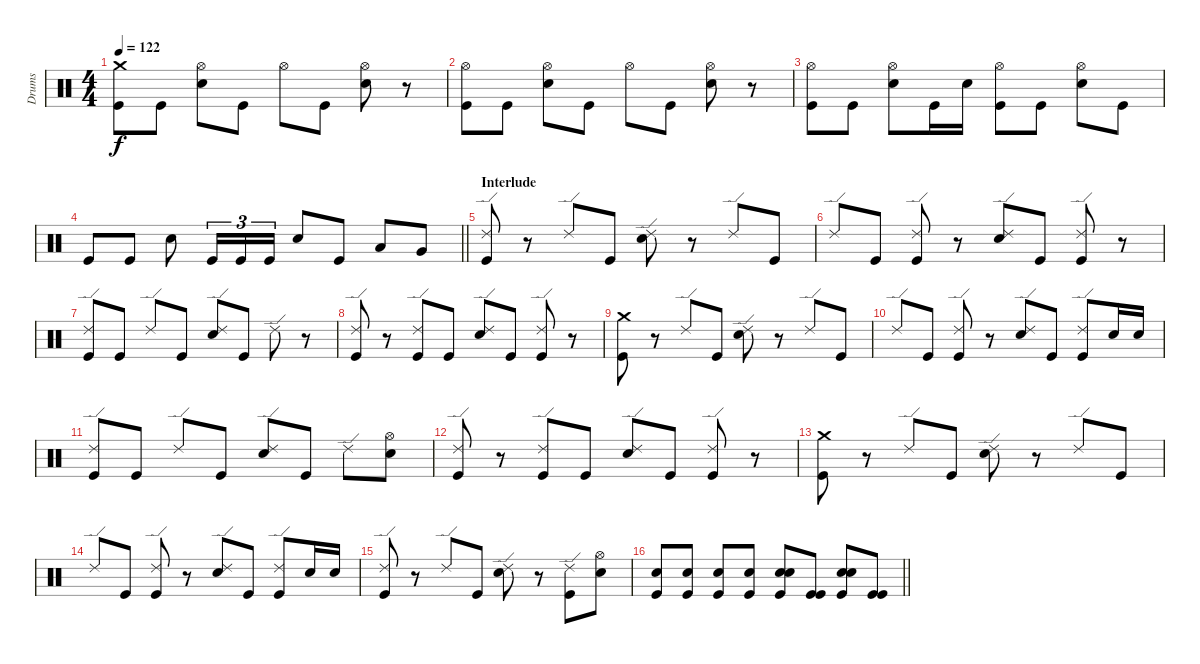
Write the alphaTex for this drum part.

\track ("Drums" "Drums") {instrument percussion}
\staff {score}
\articulation defaults
\ts (4 4)
\tempo 122
\clef neutral
\ks c
("Crash medium (hit)" "Kick (hit)").8{dy f} "Kick (hit)".8 ("Hi-Hat (open)" "Electric Snare (hit)").8 "Kick (hit)".8 "Hi-Hat (open)".8 "Kick (hit)".8 ("Hi-Hat (open)" "Electric Snare (hit)").8 r.8 |
("Hi-Hat (open)" "Kick (hit)").8 "Kick (hit)".8 ("Hi-Hat (open)" "Electric Snare (hit)").8 "Kick (hit)".8 "Hi-Hat (open)".8 "Kick (hit)".8 ("Hi-Hat (open)" "Electric Snare (hit)").8 r.8 |
("Hi-Hat (open)" "Kick (hit)").8 "Kick (hit)".8 ("Hi-Hat (open)" "Electric Snare (hit)").8 "Kick (hit)".16 "Electric Snare (hit)".16 ("Hi-Hat (open)" "Kick (hit)").8 "Kick (hit)".8 ("Hi-Hat (open)" "Electric Snare (hit)").8 "Kick (hit)".8 |
\barLineRight lightlight "Kick (hit)".8 "Kick (hit)".8 "Electric Snare (hit)".8 "Kick (hit)".16{tu (3 2)} "Kick (hit)".16{tu (3 2)} "Kick (hit)".16{tu (3 2)} "Electric Snare (hit)".8 "Kick (hit)".8 "Low Tom (hit)".8 "Very Low Tom (hit)".8
|
\section ("" "Interlude")
("Ride (edge) 2" "Kick (hit)").8 r.8 "Ride (edge) 2".8 "Kick (hit)".8 ("Ride (edge) 2" "Electric Snare (hit)").8 r.8 "Ride (edge) 2".8 "Kick (hit)".8 |
"Ride (edge) 2".8 "Kick (hit)".8 ("Ride (edge) 2" "Kick (hit)").8 r.8 ("Ride (edge) 2" "Electric Snare (hit)").8 "Kick (hit)".8 ("Ride (edge) 2" "Kick (hit)").8 r.8 |
("Ride (edge) 2" "Kick (hit)").8 "Kick (hit)".8 "Ride (edge) 2".8 "Kick (hit)".8 ("Ride (edge) 2" "Electric Snare (hit)").8 "Kick (hit)".8 "Ride (edge) 2".8 r.8 |
("Ride (edge) 2" "Kick (hit)").8 r.8 ("Ride (edge) 2" "Kick (hit)").8 "Kick (hit)".8 ("Ride (edge) 2" "Electric Snare (hit)").8 "Kick (hit)".8 ("Ride (edge) 2" "Kick (hit)").8 r.8 |
("Crash medium (hit)" "Kick (hit)").8 r.8 "Ride (edge) 2".8 "Kick (hit)".8 ("Ride (edge) 2" "Electric Snare (hit)").8 r.8 "Ride (edge) 2".8 "Kick (hit)".8 |
"Ride (edge) 2".8 "Kick (hit)".8 ("Ride (edge) 2" "Kick (hit)").8 r.8 ("Ride (edge) 2" "Electric Snare (hit)").8 "Kick (hit)".8 ("Ride (edge) 2" "Kick (hit)").8 "Electric Snare (hit)".16 "Electric Snare (hit)".16 |
("Ride (edge) 2" "Kick (hit)").8 "Kick (hit)".8 "Ride (edge) 2".8 "Kick (hit)".8 ("Ride (edge) 2" "Electric Snare (hit)").8 "Kick (hit)".8 "Ride (edge) 2".8 ("Hi-Hat (open)" "Electric Snare (hit)").8 |
("Ride (edge) 2" "Kick (hit)").8 r.8 ("Ride (edge) 2" "Kick (hit)").8 "Kick (hit)".8 ("Ride (edge) 2" "Electric Snare (hit)").8 "Kick (hit)".8 ("Ride (edge) 2" "Kick (hit)").8 r.8 |
("Crash medium (hit)" "Kick (hit)").8 r.8 "Ride (edge) 2".8 "Kick (hit)".8 ("Ride (edge) 2" "Electric Snare (hit)").8 r.8 "Ride (edge) 2".8 "Kick (hit)".8 |
"Ride (edge) 2".8 "Kick (hit)".8 ("Ride (edge) 2" "Kick (hit)").8 r.8 ("Ride (edge) 2" "Electric Snare (hit)").8 "Kick (hit)".8 ("Ride (edge) 2" "Kick (hit)").8 "Electric Snare (hit)".16 "Electric Snare (hit)".16 |
("Ride (edge) 2" "Kick (hit)").8 r.8 "Ride (edge) 2".8 "Kick (hit)".8 ("Ride (edge) 2" "Electric Snare (hit)").8 r.8 ("Ride (edge) 2" "Kick (hit)").8 ("Hi-Hat (open)" "Electric Snare (hit)").8 |
\barLineRight lightlight
("Electric Snare (hit)" "Kick (hit)").8 ("Electric Snare (hit)" "Kick (hit)").8 ("Electric Snare (hit)" "Kick (hit)").8 ("Electric Snare (hit)" "Kick (hit)").8 ("Electric Snare (hit)" "Electric Snare (hit)" "Kick (hit)").8 ("Kick (hit)" "Kick (hit)").8 ("Electric Snare (hit)" "Electric Snare (hit)" "Kick (hit)").8 ("Kick (hit)" "Kick (hit)").8
